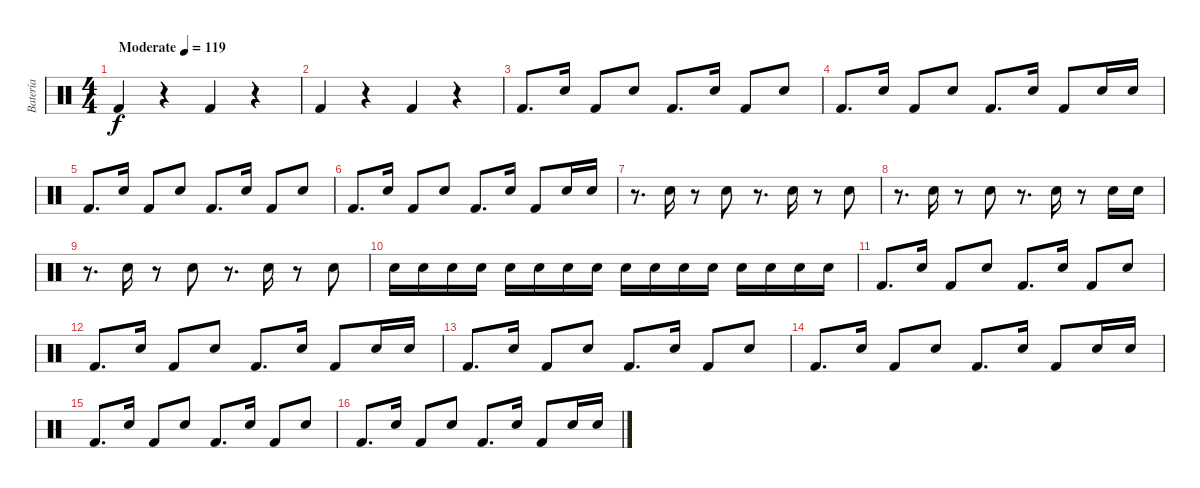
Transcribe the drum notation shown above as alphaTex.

\track ("Batería" "Batería") {instrument percussion}
\staff {score}
\articulation defaults
\ts (4 4)
\tempo (119 "Moderate")
\clef neutral
\ks c "Kick (hit) 2".4{dy f}
r.4 "Kick (hit) 2".4 r.4 |
"Kick (hit) 2".4 r.4 "Kick (hit) 2".4 r.4 |
"Kick (hit) 2".8{d} "Electric Snare (hit)".16 "Kick (hit) 2".8 "Electric Snare (hit)".8 "Kick (hit) 2".8{d} "Electric Snare (hit)".16 "Kick (hit) 2".8 "Electric Snare (hit)".8 |
"Kick (hit) 2".8{d} "Electric Snare (hit)".16 "Kick (hit) 2".8 "Electric Snare (hit)".8 "Kick (hit) 2".8{d} "Electric Snare (hit)".16 "Kick (hit) 2".8 "Electric Snare (hit)".16 "Electric Snare (hit)".16 |
"Kick (hit) 2".8{d} "Electric Snare (hit)".16 "Kick (hit) 2".8 "Electric Snare (hit)".8 "Kick (hit) 2".8{d} "Electric Snare (hit)".16 "Kick (hit) 2".8 "Electric Snare (hit)".8 |
"Kick (hit) 2".8{d} "Electric Snare (hit)".16 "Kick (hit) 2".8 "Electric Snare (hit)".8 "Kick (hit) 2".8{d} "Electric Snare (hit)".16 "Kick (hit) 2".8 "Electric Snare (hit)".16 "Electric Snare (hit)".16 |
r.8{d} "Electric Snare (hit)".16 r.8 "Electric Snare (hit)".8 r.8{d} "Electric Snare (hit)".16 r.8 "Electric Snare (hit)".8 |
r.8{d} "Electric Snare (hit)".16 r.8 "Electric Snare (hit)".8 r.8{d} "Electric Snare (hit)".16 r.8 "Electric Snare (hit)".16 "Electric Snare (hit)".16 |
r.8{d} "Electric Snare (hit)".16 r.8 "Electric Snare (hit)".8 r.8{d} "Electric Snare (hit)".16 r.8 "Electric Snare (hit)".8 |
"Electric Snare (hit)".16{volume 9} "Electric Snare (hit)".16{volume 13} "Electric Snare (hit)".16 "Electric Snare (hit)".16 "Electric Snare (hit)".16 "Electric Snare (hit)".16 "Electric Snare (hit)".16 "Electric Snare (hit)".16 "Electric Snare (hit)".16 "Electric Snare (hit)".16 "Electric Snare (hit)".16 "Electric Snare (hit)".16 "Electric Snare (hit)".16 "Electric Snare (hit)".16 "Electric Snare (hit)".16 "Electric Snare (hit)".16 |
"Kick (hit) 2".8{d} "Electric Snare (hit)".16 "Kick (hit) 2".8 "Electric Snare (hit)".8 "Kick (hit) 2".8{d} "Electric Snare (hit)".16 "Kick (hit) 2".8 "Electric Snare (hit)".8 |
"Kick (hit) 2".8{d} "Electric Snare (hit)".16 "Kick (hit) 2".8 "Electric Snare (hit)".8 "Kick (hit) 2".8{d} "Electric Snare (hit)".16 "Kick (hit) 2".8 "Electric Snare (hit)".16 "Electric Snare (hit)".16 |
"Kick (hit) 2".8{d} "Electric Snare (hit)".16 "Kick (hit) 2".8 "Electric Snare (hit)".8 "Kick (hit) 2".8{d} "Electric Snare (hit)".16 "Kick (hit) 2".8 "Electric Snare (hit)".8 |
"Kick (hit) 2".8{d} "Electric Snare (hit)".16 "Kick (hit) 2".8 "Electric Snare (hit)".8 "Kick (hit) 2".8{d} "Electric Snare (hit)".16 "Kick (hit) 2".8 "Electric Snare (hit)".16 "Electric Snare (hit)".16 |
"Kick (hit) 2".8{d} "Electric Snare (hit)".16 "Kick (hit) 2".8 "Electric Snare (hit)".8 "Kick (hit) 2".8{d} "Electric Snare (hit)".16 "Kick (hit) 2".8 "Electric Snare (hit)".8 |
"Kick (hit) 2".8{d} "Electric Snare (hit)".16 "Kick (hit) 2".8 "Electric Snare (hit)".8 "Kick (hit) 2".8{d} "Electric Snare (hit)".16 "Kick (hit) 2".8 "Electric Snare (hit)".16 "Electric Snare (hit)".16
